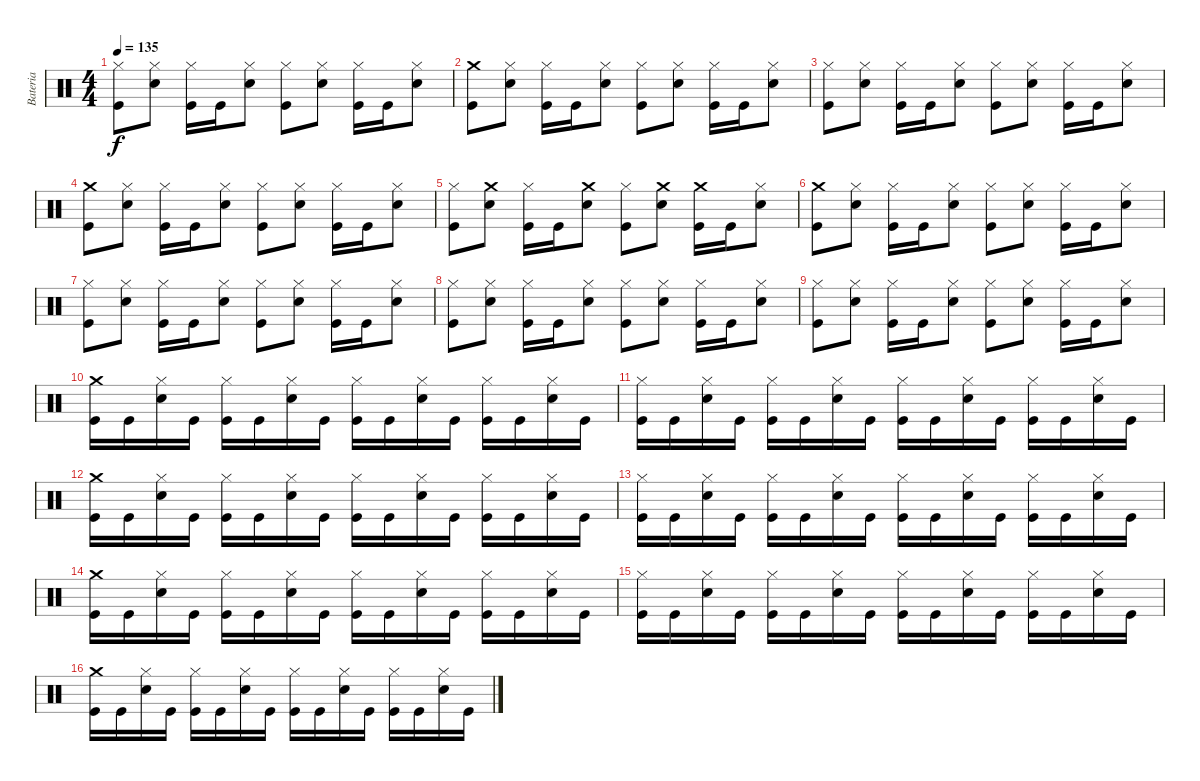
\track ("Bateria" "Bateria") {instrument percussion}
\staff {score}
\articulation defaults
\ts (4 4)
\tempo 135
\clef neutral
\ks c
("Kick (hit)" "Hi-Hat (closed)").8{dy f} ("Snare (hit) 2" "Hi-Hat (closed)").8 ("Kick (hit)" "Hi-Hat (closed)").16 "Kick (hit)".16 ("Snare (hit) 2" "Hi-Hat (closed)").8 ("Kick (hit)" "Hi-Hat (closed)").8 ("Snare (hit) 2" "Hi-Hat (closed)").8 ("Kick (hit)" "Hi-Hat (closed)").16 "Kick (hit)".16 ("Snare (hit) 2" "Hi-Hat (closed)").8 |
("Kick (hit)" "Crash medium (hit)").8 ("Snare (hit) 2" "Hi-Hat (closed)").8 ("Kick (hit)" "Hi-Hat (closed)").16 "Kick (hit)".16 ("Snare (hit) 2" "Hi-Hat (closed)").8 ("Kick (hit)" "Hi-Hat (closed)").8 ("Snare (hit) 2" "Hi-Hat (closed)").8 ("Kick (hit)" "Hi-Hat (closed)").16 "Kick (hit)".16 ("Snare (hit) 2" "Hi-Hat (closed)").8 |
("Kick (hit)" "Hi-Hat (closed)").8 ("Snare (hit) 2" "Hi-Hat (closed)").8 ("Kick (hit)" "Hi-Hat (closed)").16 "Kick (hit)".16 ("Snare (hit) 2" "Hi-Hat (closed)").8 ("Kick (hit)" "Hi-Hat (closed)").8 ("Snare (hit) 2" "Hi-Hat (closed)").8 ("Kick (hit)" "Hi-Hat (closed)").16 "Kick (hit)".16 ("Snare (hit) 2" "Hi-Hat (closed)").8 |
("Kick (hit)" "Crash medium (hit)").8 ("Snare (hit) 2" "Hi-Hat (closed)").8 ("Kick (hit)" "Hi-Hat (closed)").16 "Kick (hit)".16 ("Snare (hit) 2" "Hi-Hat (closed)").8 ("Kick (hit)" "Hi-Hat (closed)").8 ("Snare (hit) 2" "Hi-Hat (closed)").8 ("Kick (hit)" "Hi-Hat (closed)").16 "Kick (hit)".16 ("Snare (hit) 2" "Hi-Hat (closed)").8 |
("Kick (hit)" "Hi-Hat (closed)").8 ("Snare (hit) 2" "Crash medium (hit)").8 ("Kick (hit)" "Hi-Hat (closed)").16 "Kick (hit)".16 ("Snare (hit) 2" "Crash medium (hit)").8 ("Kick (hit)" "Hi-Hat (closed)").8 ("Snare (hit) 2" "Crash medium (hit)").8 ("Kick (hit)" "Crash medium (hit)").16 "Kick (hit)".16 ("Snare (hit) 2" "Hi-Hat (closed)").8 |
("Kick (hit)" "Crash medium (hit)").8 ("Snare (hit) 2" "Hi-Hat (closed)").8 ("Kick (hit)" "Hi-Hat (closed)").16 "Kick (hit)".16 ("Snare (hit) 2" "Hi-Hat (closed)").8 ("Kick (hit)" "Hi-Hat (closed)").8 ("Snare (hit) 2" "Hi-Hat (closed)").8 ("Kick (hit)" "Hi-Hat (closed)").16 "Kick (hit)".16 ("Snare (hit) 2" "Hi-Hat (closed)").8 |
("Kick (hit)" "Hi-Hat (closed)").8 ("Snare (hit) 2" "Hi-Hat (closed)").8 ("Kick (hit)" "Hi-Hat (closed)").16 "Kick (hit)".16 ("Snare (hit) 2" "Hi-Hat (closed)").8 ("Kick (hit)" "Hi-Hat (closed)").8 ("Snare (hit) 2" "Hi-Hat (closed)").8 ("Kick (hit)" "Hi-Hat (closed)").16 "Kick (hit)".16 ("Snare (hit) 2" "Hi-Hat (closed)").8 |
("Kick (hit)" "Hi-Hat (closed)").8 ("Snare (hit) 2" "Hi-Hat (closed)").8 ("Kick (hit)" "Hi-Hat (closed)").16 "Kick (hit)".16 ("Snare (hit) 2" "Hi-Hat (closed)").8 ("Kick (hit)" "Hi-Hat (closed)").8 ("Snare (hit) 2" "Hi-Hat (closed)").8 ("Kick (hit)" "Hi-Hat (closed)").16 "Kick (hit)".16 ("Snare (hit) 2" "Hi-Hat (closed)").8 |
("Kick (hit)" "Hi-Hat (closed)").8 ("Snare (hit) 2" "Hi-Hat (closed)").8 ("Kick (hit)" "Hi-Hat (closed)").16 "Kick (hit)".16 ("Snare (hit) 2" "Hi-Hat (closed)").8 ("Kick (hit)" "Hi-Hat (closed)").8 ("Snare (hit) 2" "Hi-Hat (closed)").8 ("Kick (hit)" "Hi-Hat (closed)").16 "Kick (hit)".16 ("Snare (hit) 2" "Hi-Hat (closed)").8 |
("Kick (hit)" "Crash medium (hit)").16 "Kick (hit)".16 ("Snare (hit) 2" "Hi-Hat (closed)").16 "Kick (hit)".16 ("Kick (hit)" "Hi-Hat (closed)").16 "Kick (hit)".16 ("Snare (hit) 2" "Hi-Hat (closed)").16 "Kick (hit)".16 ("Kick (hit)" "Hi-Hat (closed)").16 "Kick (hit)".16 ("Snare (hit) 2" "Hi-Hat (closed)").16 "Kick (hit)".16 ("Kick (hit)" "Hi-Hat (closed)").16 "Kick (hit)".16 ("Snare (hit) 2" "Hi-Hat (closed)").16 "Kick (hit)".16 |
("Kick (hit)" "Hi-Hat (closed)").16 "Kick (hit)".16 ("Snare (hit) 2" "Hi-Hat (closed)").16 "Kick (hit)".16 ("Kick (hit)" "Hi-Hat (closed)").16 "Kick (hit)".16 ("Snare (hit) 2" "Hi-Hat (closed)").16 "Kick (hit)".16 ("Kick (hit)" "Hi-Hat (closed)").16 "Kick (hit)".16 ("Snare (hit) 2" "Hi-Hat (closed)").16 "Kick (hit)".16 ("Kick (hit)" "Hi-Hat (closed)").16 "Kick (hit)".16 ("Snare (hit) 2" "Hi-Hat (closed)").16 "Kick (hit)".16 |
("Kick (hit)" "Crash medium (hit)").16 "Kick (hit)".16 ("Snare (hit) 2" "Hi-Hat (closed)").16 "Kick (hit)".16 ("Kick (hit)" "Hi-Hat (closed)").16 "Kick (hit)".16 ("Snare (hit) 2" "Hi-Hat (closed)").16 "Kick (hit)".16 ("Kick (hit)" "Hi-Hat (closed)").16 "Kick (hit)".16 ("Snare (hit) 2" "Hi-Hat (closed)").16 "Kick (hit)".16 ("Kick (hit)" "Hi-Hat (closed)").16 "Kick (hit)".16 ("Snare (hit) 2" "Hi-Hat (closed)").16 "Kick (hit)".16 |
("Kick (hit)" "Hi-Hat (closed)").16 "Kick (hit)".16 ("Snare (hit) 2" "Hi-Hat (closed)").16 "Kick (hit)".16 ("Kick (hit)" "Hi-Hat (closed)").16 "Kick (hit)".16 ("Snare (hit) 2" "Hi-Hat (closed)").16 "Kick (hit)".16 ("Kick (hit)" "Hi-Hat (closed)").16 "Kick (hit)".16 ("Snare (hit) 2" "Hi-Hat (closed)").16 "Kick (hit)".16 ("Kick (hit)" "Hi-Hat (closed)").16 "Kick (hit)".16 ("Snare (hit) 2" "Hi-Hat (closed)").16 "Kick (hit)".16 |
("Kick (hit)" "Crash medium (hit)").16 "Kick (hit)".16 ("Snare (hit) 2" "Hi-Hat (closed)").16 "Kick (hit)".16 ("Kick (hit)" "Hi-Hat (closed)").16 "Kick (hit)".16 ("Snare (hit) 2" "Hi-Hat (closed)").16 "Kick (hit)".16 ("Kick (hit)" "Hi-Hat (closed)").16 "Kick (hit)".16 ("Snare (hit) 2" "Hi-Hat (closed)").16 "Kick (hit)".16 ("Kick (hit)" "Hi-Hat (closed)").16 "Kick (hit)".16 ("Snare (hit) 2" "Hi-Hat (closed)").16 "Kick (hit)".16 |
("Kick (hit)" "Hi-Hat (closed)").16 "Kick (hit)".16 ("Snare (hit) 2" "Hi-Hat (closed)").16 "Kick (hit)".16 ("Kick (hit)" "Hi-Hat (closed)").16 "Kick (hit)".16 ("Snare (hit) 2" "Hi-Hat (closed)").16 "Kick (hit)".16 ("Kick (hit)" "Hi-Hat (closed)").16 "Kick (hit)".16 ("Snare (hit) 2" "Hi-Hat (closed)").16 "Kick (hit)".16 ("Kick (hit)" "Hi-Hat (closed)").16 "Kick (hit)".16 ("Snare (hit) 2" "Hi-Hat (closed)").16 "Kick (hit)".16 |
("Kick (hit)" "Crash medium (hit)").16 "Kick (hit)".16 ("Snare (hit) 2" "Hi-Hat (closed)").16 "Kick (hit)".16 ("Kick (hit)" "Hi-Hat (closed)").16 "Kick (hit)".16 ("Snare (hit) 2" "Hi-Hat (closed)").16 "Kick (hit)".16 ("Kick (hit)" "Hi-Hat (closed)").16 "Kick (hit)".16 ("Snare (hit) 2" "Hi-Hat (closed)").16 "Kick (hit)".16 ("Kick (hit)" "Hi-Hat (closed)").16 "Kick (hit)".16 ("Snare (hit) 2" "Hi-Hat (closed)").16 "Kick (hit)".16
